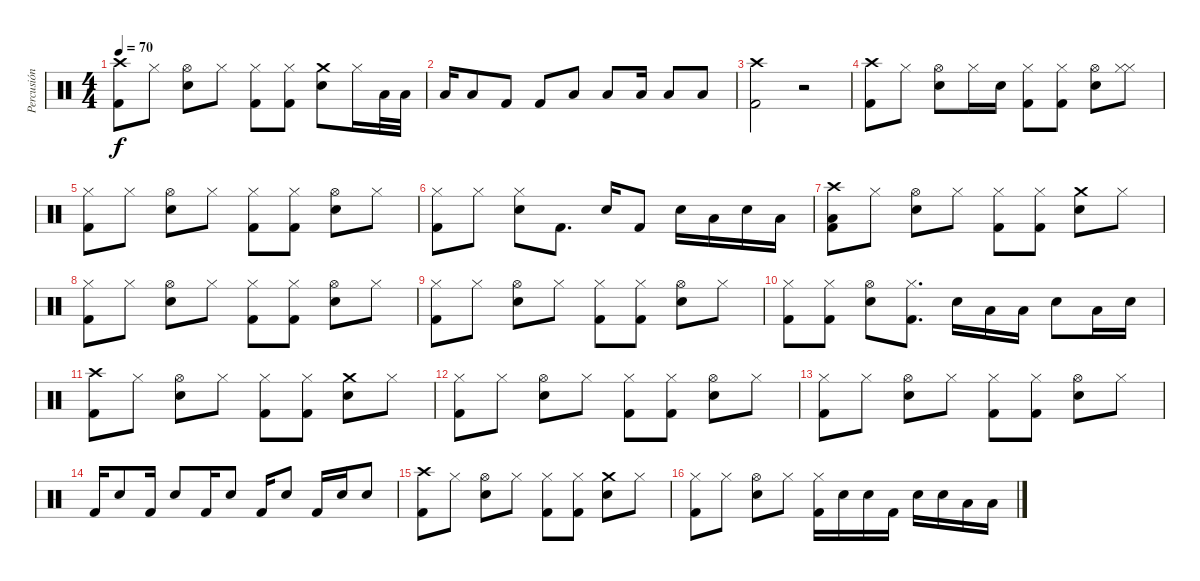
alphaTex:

\track ("Percusión" "Percusión") {instrument percussion}
\staff {score}
\articulation defaults
\ts (4 4)
\tempo 70
\clef neutral
\ks c
("Crash high (hit)" "Kick (hit) 2").8{dy f} "Hi-Hat (closed)".8 ("Hi-Hat (open)" "Snare (hit) 2").8 "Hi-Hat (closed)".8 ("Hi-Hat (closed)" "Kick (hit) 2").8 ("Hi-Hat (closed)" "Kick (hit) 2").8 ("Crash medium (hit)" "Snare (hit) 2").8 "Hi-Hat (closed)".16 "Low Tom (hit)".32 "Low Tom (hit)".32 |
"Low Tom (hit)".16 "Low Tom (hit)".8 "Kick (hit) 2".8 "Kick (hit) 2".8 "Low Tom (hit)".8 "Low Tom (hit)".8 "Low Tom (hit)".16 "Low Tom (hit)".8 "Low Tom (hit)".8 |
("Crash high (hit)" "Kick (hit) 2").2 r.2 |
("Crash high (hit)" "Kick (hit) 2").8 "Hi-Hat (closed)".8 ("Hi-Hat (open)" "Snare (hit) 2").8 "Hi-Hat (closed)".16 "Snare (hit) 2".16 ("Hi-Hat (closed)" "Kick (hit) 2").8 ("Hi-Hat (closed)" "Kick (hit) 2").8 ("Hi-Hat (open)" "Snare (hit) 2").8 ("Hi-Hat (closed)" "Hi-Hat (closed)").8 |
("Hi-Hat (closed)" "Kick (hit) 2").8 "Hi-Hat (closed)".8 ("Hi-Hat (open)" "Snare (hit) 2").8 "Hi-Hat (closed)".8 ("Hi-Hat (closed)" "Kick (hit) 2").8 ("Hi-Hat (closed)" "Kick (hit) 2").8 ("Hi-Hat (open)" "Snare (hit) 2").8 "Hi-Hat (closed)".8 |
("Hi-Hat (closed)" "Kick (hit) 2").8 "Hi-Hat (closed)".8 ("Hi-Hat (closed)" "Snare (hit) 2").8 "Kick (hit) 2".8{d} "Snare (hit) 2".16 "Kick (hit) 2".8 "Snare (hit) 2".16 "Low Tom (hit)".16 "Snare (hit) 2".16 "Low Tom (hit)".16 |
("Crash high (hit)" "Low Tom (hit)" "Kick (hit) 2").8 "Hi-Hat (closed)".8 ("Hi-Hat (open)" "Snare (hit) 2").8 "Hi-Hat (closed)".8 ("Hi-Hat (closed)" "Kick (hit) 2").8 ("Hi-Hat (closed)" "Kick (hit) 2").8 ("Crash medium (hit)" "Snare (hit) 2").8 "Hi-Hat (closed)".8 |
("Hi-Hat (closed)" "Kick (hit) 2").8 "Hi-Hat (closed)".8 ("Hi-Hat (open)" "Snare (hit) 2").8 "Hi-Hat (closed)".8 ("Hi-Hat (closed)" "Kick (hit) 2").8 ("Hi-Hat (closed)" "Kick (hit) 2").8 ("Hi-Hat (open)" "Snare (hit) 2").8 "Hi-Hat (closed)".8 |
("Hi-Hat (closed)" "Kick (hit) 2").8 "Hi-Hat (closed)".8 ("Hi-Hat (open)" "Snare (hit) 2").8 "Hi-Hat (closed)".8 ("Hi-Hat (closed)" "Kick (hit) 2").8 ("Hi-Hat (closed)" "Kick (hit) 2").8 ("Hi-Hat (open)" "Snare (hit) 2").8 "Hi-Hat (closed)".8 |
("Hi-Hat (closed)" "Kick (hit) 2").8 ("Hi-Hat (closed)" "Kick (hit) 2").8 ("Hi-Hat (open)" "Snare (hit) 2").8 ("Hi-Hat (closed)" "Kick (hit) 2").8{d} "Snare (hit) 2".16 "Low Tom (hit)".16 "Low Tom (hit)".16 "Snare (hit) 2".8 "Low Tom (hit)".16 "Snare (hit) 2".16 |
("Crash high (hit)" "Kick (hit) 2").8 "Hi-Hat (closed)".8 ("Hi-Hat (open)" "Snare (hit) 2").8 "Hi-Hat (closed)".8 ("Hi-Hat (closed)" "Kick (hit) 2").8 ("Hi-Hat (closed)" "Kick (hit) 2").8 ("Crash medium (hit)" "Snare (hit) 2").8 "Hi-Hat (closed)".8 |
("Hi-Hat (closed)" "Kick (hit) 2").8 "Hi-Hat (closed)".8 ("Hi-Hat (open)" "Snare (hit) 2").8 "Hi-Hat (closed)".8 ("Hi-Hat (closed)" "Kick (hit) 2").8 ("Hi-Hat (closed)" "Kick (hit) 2").8 ("Hi-Hat (open)" "Snare (hit) 2").8 "Hi-Hat (closed)".8 |
("Hi-Hat (closed)" "Kick (hit) 2").8 "Hi-Hat (closed)".8 ("Hi-Hat (open)" "Snare (hit) 2").8 "Hi-Hat (closed)".8 ("Hi-Hat (closed)" "Kick (hit) 2").8 ("Hi-Hat (closed)" "Kick (hit) 2").8 ("Hi-Hat (open)" "Snare (hit) 2").8 "Hi-Hat (closed)".8 |
"Kick (hit) 2".16 "Snare (hit) 2".8 "Kick (hit) 2".16 "Snare (hit) 2".8 "Kick (hit) 2".16 "Snare (hit) 2".8 "Kick (hit) 2".16 "Snare (hit) 2".8 "Kick (hit) 2".16 "Snare (hit) 2".16 "Snare (hit) 2".8 |
("Crash high (hit)" "Kick (hit) 2").8 "Hi-Hat (closed)".8 ("Hi-Hat (open)" "Snare (hit) 2").8 "Hi-Hat (closed)".8 ("Hi-Hat (closed)" "Kick (hit) 2").8 ("Hi-Hat (closed)" "Kick (hit) 2").8 ("Crash medium (hit)" "Snare (hit) 2").8 "Hi-Hat (closed)".8 |
("Hi-Hat (closed)" "Kick (hit) 2").8 "Hi-Hat (closed)".8 ("Hi-Hat (open)" "Snare (hit) 2").8 "Hi-Hat (closed)".8 ("Hi-Hat (closed)" "Kick (hit) 2").16 "Snare (hit) 2".16 "Snare (hit) 2".16 "Kick (hit) 2".16 "Snare (hit) 2".16 "Snare (hit) 2".16 "Low Tom (hit)".16 "Low Tom (hit)".16
